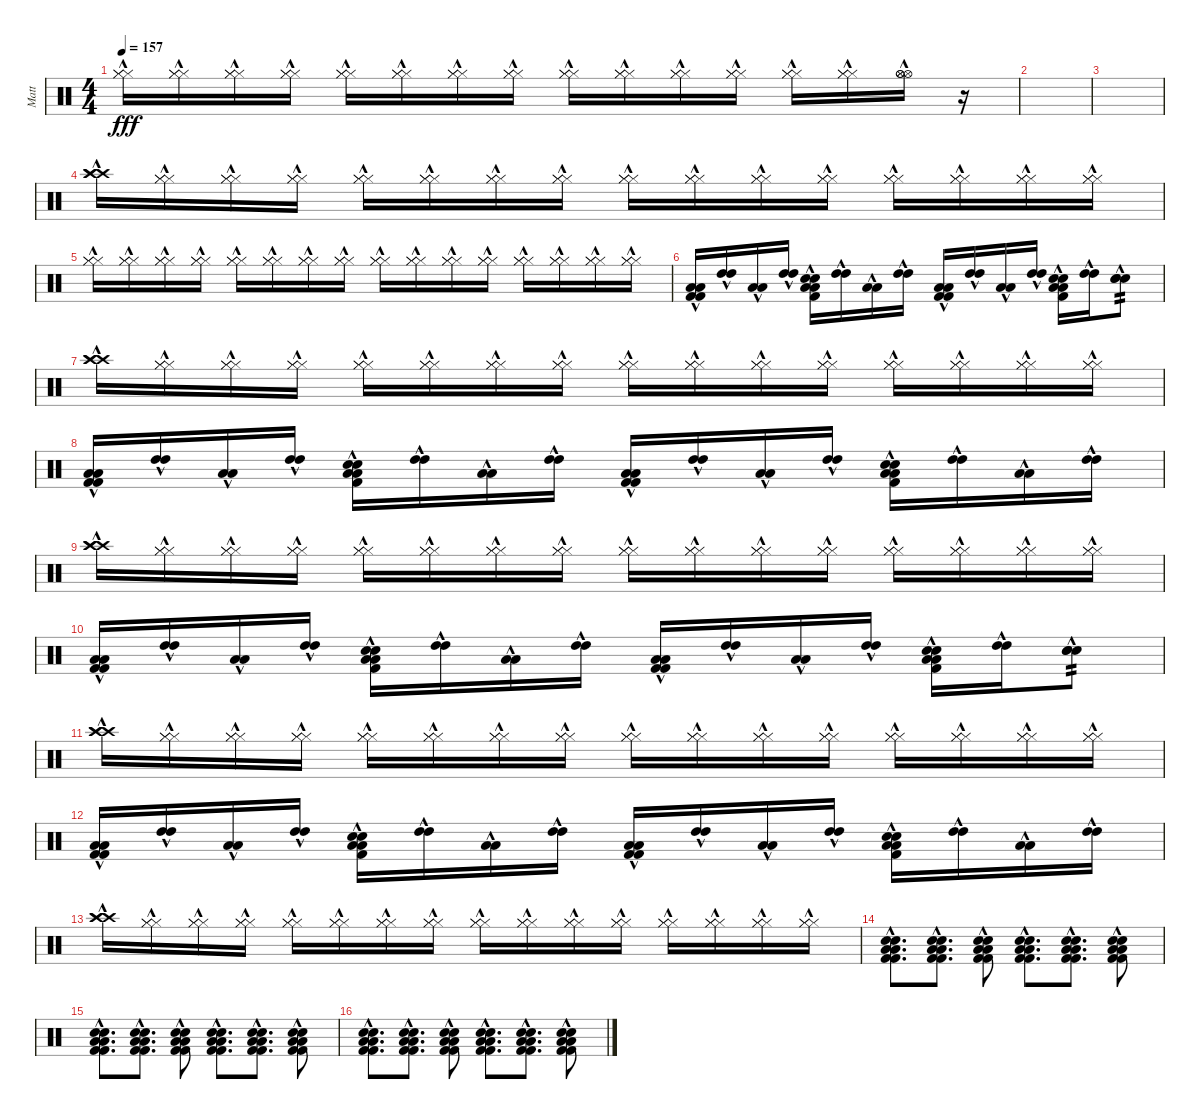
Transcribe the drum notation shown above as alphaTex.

\track ("Matt" "Matt") {instrument percussion}
\staff {score}
\articulation defaults
\ts (4 4)
\tempo 157
\clef neutral
\ks c
("Hi-Hat (closed)"{hac} "Hi-Hat (closed)"{hac} "Hi-Hat (closed)"{hac}).16{dy fff} ("Hi-Hat (closed)"{hac} "Hi-Hat (closed)"{hac} "Hi-Hat (closed)"{hac}).16 ("Hi-Hat (closed)"{hac} "Hi-Hat (closed)"{hac} "Hi-Hat (closed)"{hac}).16 ("Hi-Hat (closed)"{hac} "Hi-Hat (closed)"{hac} "Hi-Hat (closed)"{hac}).16 ("Hi-Hat (closed)"{hac} "Hi-Hat (closed)"{hac} "Hi-Hat (closed)"{hac}).16 ("Hi-Hat (closed)"{hac} "Hi-Hat (closed)"{hac} "Hi-Hat (closed)"{hac}).16 ("Hi-Hat (closed)"{hac} "Hi-Hat (closed)"{hac} "Hi-Hat (closed)"{hac}).16 ("Hi-Hat (closed)"{hac} "Hi-Hat (closed)"{hac} "Hi-Hat (closed)"{hac}).16 ("Hi-Hat (closed)"{hac} "Hi-Hat (closed)"{hac} "Hi-Hat (closed)"{hac}).16 ("Hi-Hat (closed)"{hac} "Hi-Hat (closed)"{hac} "Hi-Hat (closed)"{hac}).16 ("Hi-Hat (closed)"{hac} "Hi-Hat (closed)"{hac} "Hi-Hat (closed)"{hac}).16 ("Hi-Hat (closed)"{hac} "Hi-Hat (closed)"{hac} "Hi-Hat (closed)"{hac}).16 ("Hi-Hat (closed)"{hac} "Hi-Hat (closed)"{hac} "Hi-Hat (closed)"{hac}).16 ("Hi-Hat (closed)"{hac} "Hi-Hat (closed)"{hac} "Hi-Hat (closed)"{hac}).16 ("Hi-Hat (open)"{hac} "Hi-Hat (open)"{hac} "Hi-Hat (open)"{hac}).16 r.16 |
|
|
("Crash high (hit)"{hac} "Crash high (hit)"{hac} "Crash high (hit)"{hac}).16 ("Hi-Hat (closed)"{hac} "Hi-Hat (closed)"{hac} "Hi-Hat (closed)"{hac}).16 ("Hi-Hat (closed)"{hac} "Hi-Hat (closed)"{hac} "Hi-Hat (closed)"{hac}).16 ("Hi-Hat (closed)"{hac} "Hi-Hat (closed)"{hac} "Hi-Hat (closed)"{hac}).16 ("Hi-Hat (closed)"{hac} "Hi-Hat (closed)"{hac} "Hi-Hat (closed)"{hac}).16 ("Hi-Hat (closed)"{hac} "Hi-Hat (closed)"{hac} "Hi-Hat (closed)"{hac}).16 ("Hi-Hat (closed)"{hac} "Hi-Hat (closed)"{hac} "Hi-Hat (closed)"{hac}).16 ("Hi-Hat (closed)"{hac} "Hi-Hat (closed)"{hac} "Hi-Hat (closed)"{hac}).16 ("Hi-Hat (closed)"{hac} "Hi-Hat (closed)"{hac} "Hi-Hat (closed)"{hac}).16 ("Hi-Hat (closed)"{hac} "Hi-Hat (closed)"{hac} "Hi-Hat (closed)"{hac}).16 ("Hi-Hat (closed)"{hac} "Hi-Hat (closed)"{hac} "Hi-Hat (closed)"{hac}).16 ("Hi-Hat (closed)"{hac} "Hi-Hat (closed)"{hac} "Hi-Hat (closed)"{hac}).16 ("Hi-Hat (closed)"{hac} "Hi-Hat (closed)"{hac} "Hi-Hat (closed)"{hac}).16 ("Hi-Hat (closed)"{hac} "Hi-Hat (closed)"{hac} "Hi-Hat (closed)"{hac}).16 ("Hi-Hat (closed)"{hac} "Hi-Hat (closed)"{hac} "Hi-Hat (closed)"{hac}).16 ("Hi-Hat (closed)"{hac} "Hi-Hat (closed)"{hac} "Hi-Hat (closed)"{hac}).16 |
("Hi-Hat (closed)"{hac} "Hi-Hat (closed)"{hac} "Hi-Hat (closed)"{hac}).16 ("Hi-Hat (closed)"{hac} "Hi-Hat (closed)"{hac} "Hi-Hat (closed)"{hac}).16 ("Hi-Hat (closed)"{hac} "Hi-Hat (closed)"{hac} "Hi-Hat (closed)"{hac}).16 ("Hi-Hat (closed)"{hac} "Hi-Hat (closed)"{hac} "Hi-Hat (closed)"{hac}).16 ("Hi-Hat (closed)"{hac} "Hi-Hat (closed)"{hac} "Hi-Hat (closed)"{hac}).16 ("Hi-Hat (closed)"{hac} "Hi-Hat (closed)"{hac} "Hi-Hat (closed)"{hac}).16 ("Hi-Hat (closed)"{hac} "Hi-Hat (closed)"{hac} "Hi-Hat (closed)"{hac}).16 ("Hi-Hat (closed)"{hac} "Hi-Hat (closed)"{hac} "Hi-Hat (closed)"{hac}).16 ("Hi-Hat (closed)"{hac} "Hi-Hat (closed)"{hac} "Hi-Hat (closed)"{hac}).16 ("Hi-Hat (closed)"{hac} "Hi-Hat (closed)"{hac} "Hi-Hat (closed)"{hac}).16 ("Hi-Hat (closed)"{hac} "Hi-Hat (closed)"{hac} "Hi-Hat (closed)"{hac}).16 ("Hi-Hat (closed)"{hac} "Hi-Hat (closed)"{hac} "Hi-Hat (closed)"{hac}).16 ("Hi-Hat (closed)"{hac} "Hi-Hat (closed)"{hac} "Hi-Hat (closed)"{hac}).16 ("Hi-Hat (closed)"{hac} "Hi-Hat (closed)"{hac} "Hi-Hat (closed)"{hac}).16 ("Hi-Hat (closed)"{hac} "Hi-Hat (closed)"{hac} "Hi-Hat (closed)"{hac}).16 ("Hi-Hat (closed)"{hac} "Hi-Hat (closed)"{hac} "Hi-Hat (closed)"{hac}).16 |
("Low Tom (hit)"{hac} "Low Tom (hit)"{hac} "Kick (hit) 2"{hac} "Kick (hit) 2"{hac}).16 ("High Tom (hit)"{hac} "High Tom (hit)"{hac}).16 ("Low Tom (hit)"{hac} "Low Tom (hit)"{hac}).16 ("High Tom (hit)"{hac} "High Tom (hit)"{hac}).16 ("Low Tom (hit)"{hac} "Low Tom (hit)"{hac} "Snare (hit) 2"{hac} "Kick (hit) 2"{hac} "Snare (hit) 2"{hac}).16 ("High Tom (hit)"{hac} "High Tom (hit)"{hac}).16 ("Low Tom (hit)"{hac} "Low Tom (hit)"{hac}).16 ("High Tom (hit)"{hac} "High Tom (hit)"{hac}).16 ("Low Tom (hit)"{hac} "Low Tom (hit)"{hac} "Kick (hit) 2"{hac} "Kick (hit) 2"{hac}).16 ("High Tom (hit)"{hac} "High Tom (hit)"{hac}).16 ("Low Tom (hit)"{hac} "Low Tom (hit)"{hac}).16 ("High Tom (hit)"{hac} "High Tom (hit)"{hac}).16 ("Low Tom (hit)"{hac} "Low Tom (hit)"{hac} "Snare (hit) 2"{hac} "Kick (hit) 2"{hac} "Snare (hit) 2"{hac}).16 ("High Tom (hit)"{hac} "High Tom (hit)"{hac}).16 ("Snare (hit) 2"{hac} "Snare (hit) 2"{hac} "Snare (hit) 2"{hac}).8{tp 2} |
("Crash high (hit)"{hac} "Crash high (hit)"{hac} "Crash high (hit)"{hac}).16 ("Hi-Hat (closed)"{hac} "Hi-Hat (closed)"{hac} "Hi-Hat (closed)"{hac}).16 ("Hi-Hat (closed)"{hac} "Hi-Hat (closed)"{hac} "Hi-Hat (closed)"{hac}).16 ("Hi-Hat (closed)"{hac} "Hi-Hat (closed)"{hac} "Hi-Hat (closed)"{hac}).16 ("Hi-Hat (closed)"{hac} "Hi-Hat (closed)"{hac} "Hi-Hat (closed)"{hac}).16 ("Hi-Hat (closed)"{hac} "Hi-Hat (closed)"{hac} "Hi-Hat (closed)"{hac}).16 ("Hi-Hat (closed)"{hac} "Hi-Hat (closed)"{hac} "Hi-Hat (closed)"{hac}).16 ("Hi-Hat (closed)"{hac} "Hi-Hat (closed)"{hac} "Hi-Hat (closed)"{hac}).16 ("Hi-Hat (closed)"{hac} "Hi-Hat (closed)"{hac} "Hi-Hat (closed)"{hac}).16 ("Hi-Hat (closed)"{hac} "Hi-Hat (closed)"{hac} "Hi-Hat (closed)"{hac}).16 ("Hi-Hat (closed)"{hac} "Hi-Hat (closed)"{hac} "Hi-Hat (closed)"{hac}).16 ("Hi-Hat (closed)"{hac} "Hi-Hat (closed)"{hac} "Hi-Hat (closed)"{hac}).16 ("Hi-Hat (closed)"{hac} "Hi-Hat (closed)"{hac} "Hi-Hat (closed)"{hac}).16 ("Hi-Hat (closed)"{hac} "Hi-Hat (closed)"{hac} "Hi-Hat (closed)"{hac}).16 ("Hi-Hat (closed)"{hac} "Hi-Hat (closed)"{hac} "Hi-Hat (closed)"{hac}).16 ("Hi-Hat (closed)"{hac} "Hi-Hat (closed)"{hac} "Hi-Hat (closed)"{hac}).16 |
("Low Tom (hit)"{hac} "Low Tom (hit)"{hac} "Kick (hit) 2"{hac} "Kick (hit) 2"{hac}).16 ("High Tom (hit)"{hac} "High Tom (hit)"{hac}).16 ("Low Tom (hit)"{hac} "Low Tom (hit)"{hac}).16 ("High Tom (hit)"{hac} "High Tom (hit)"{hac}).16 ("Low Tom (hit)"{hac} "Low Tom (hit)"{hac} "Snare (hit) 2"{hac} "Kick (hit) 2"{hac} "Snare (hit) 2"{hac}).16 ("High Tom (hit)"{hac} "High Tom (hit)"{hac}).16 ("Low Tom (hit)"{hac} "Low Tom (hit)"{hac}).16 ("High Tom (hit)"{hac} "High Tom (hit)"{hac}).16 ("Low Tom (hit)"{hac} "Low Tom (hit)"{hac} "Kick (hit) 2"{hac} "Kick (hit) 2"{hac}).16 ("High Tom (hit)"{hac} "High Tom (hit)"{hac}).16 ("Low Tom (hit)"{hac} "Low Tom (hit)"{hac}).16 ("High Tom (hit)"{hac} "High Tom (hit)"{hac}).16 ("Low Tom (hit)"{hac} "Low Tom (hit)"{hac} "Snare (hit) 2"{hac} "Kick (hit) 2"{hac} "Snare (hit) 2"{hac}).16 ("High Tom (hit)"{hac} "High Tom (hit)"{hac}).16 ("Low Tom (hit)"{hac} "Low Tom (hit)"{hac}).16 ("High Tom (hit)"{hac} "High Tom (hit)"{hac}).16 |
("Crash high (hit)"{hac} "Crash high (hit)"{hac} "Crash high (hit)"{hac}).16 ("Hi-Hat (closed)"{hac} "Hi-Hat (closed)"{hac} "Hi-Hat (closed)"{hac}).16 ("Hi-Hat (closed)"{hac} "Hi-Hat (closed)"{hac} "Hi-Hat (closed)"{hac}).16 ("Hi-Hat (closed)"{hac} "Hi-Hat (closed)"{hac} "Hi-Hat (closed)"{hac}).16 ("Hi-Hat (closed)"{hac} "Hi-Hat (closed)"{hac} "Hi-Hat (closed)"{hac}).16 ("Hi-Hat (closed)"{hac} "Hi-Hat (closed)"{hac} "Hi-Hat (closed)"{hac}).16 ("Hi-Hat (closed)"{hac} "Hi-Hat (closed)"{hac} "Hi-Hat (closed)"{hac}).16 ("Hi-Hat (closed)"{hac} "Hi-Hat (closed)"{hac} "Hi-Hat (closed)"{hac}).16 ("Hi-Hat (closed)"{hac} "Hi-Hat (closed)"{hac} "Hi-Hat (closed)"{hac}).16 ("Hi-Hat (closed)"{hac} "Hi-Hat (closed)"{hac} "Hi-Hat (closed)"{hac}).16 ("Hi-Hat (closed)"{hac} "Hi-Hat (closed)"{hac} "Hi-Hat (closed)"{hac}).16 ("Hi-Hat (closed)"{hac} "Hi-Hat (closed)"{hac} "Hi-Hat (closed)"{hac}).16 ("Hi-Hat (closed)"{hac} "Hi-Hat (closed)"{hac} "Hi-Hat (closed)"{hac}).16 ("Hi-Hat (closed)"{hac} "Hi-Hat (closed)"{hac} "Hi-Hat (closed)"{hac}).16 ("Hi-Hat (closed)"{hac} "Hi-Hat (closed)"{hac} "Hi-Hat (closed)"{hac}).16 ("Hi-Hat (closed)"{hac} "Hi-Hat (closed)"{hac} "Hi-Hat (closed)"{hac}).16 |
("Low Tom (hit)"{hac} "Low Tom (hit)"{hac} "Kick (hit) 2"{hac} "Kick (hit) 2"{hac}).16 ("High Tom (hit)"{hac} "High Tom (hit)"{hac}).16 ("Low Tom (hit)"{hac} "Low Tom (hit)"{hac}).16 ("High Tom (hit)"{hac} "High Tom (hit)"{hac}).16 ("Low Tom (hit)"{hac} "Low Tom (hit)"{hac} "Snare (hit) 2"{hac} "Kick (hit) 2"{hac} "Snare (hit) 2"{hac}).16 ("High Tom (hit)"{hac} "High Tom (hit)"{hac}).16 ("Low Tom (hit)"{hac} "Low Tom (hit)"{hac}).16 ("High Tom (hit)"{hac} "High Tom (hit)"{hac}).16 ("Low Tom (hit)"{hac} "Low Tom (hit)"{hac} "Kick (hit) 2"{hac} "Kick (hit) 2"{hac}).16 ("High Tom (hit)"{hac} "High Tom (hit)"{hac}).16 ("Low Tom (hit)"{hac} "Low Tom (hit)"{hac}).16 ("High Tom (hit)"{hac} "High Tom (hit)"{hac}).16 ("Low Tom (hit)"{hac} "Low Tom (hit)"{hac} "Snare (hit) 2"{hac} "Kick (hit) 2"{hac} "Snare (hit) 2"{hac}).16 ("High Tom (hit)"{hac} "High Tom (hit)"{hac}).16 ("Snare (hit) 2"{hac} "Snare (hit) 2"{hac} "Snare (hit) 2"{hac}).8{tp 2} |
("Crash high (hit)"{hac} "Crash high (hit)"{hac} "Crash high (hit)"{hac}).16 ("Hi-Hat (closed)"{hac} "Hi-Hat (closed)"{hac} "Hi-Hat (closed)"{hac}).16 ("Hi-Hat (closed)"{hac} "Hi-Hat (closed)"{hac} "Hi-Hat (closed)"{hac}).16 ("Hi-Hat (closed)"{hac} "Hi-Hat (closed)"{hac} "Hi-Hat (closed)"{hac}).16 ("Hi-Hat (closed)"{hac} "Hi-Hat (closed)"{hac} "Hi-Hat (closed)"{hac}).16 ("Hi-Hat (closed)"{hac} "Hi-Hat (closed)"{hac} "Hi-Hat (closed)"{hac}).16 ("Hi-Hat (closed)"{hac} "Hi-Hat (closed)"{hac} "Hi-Hat (closed)"{hac}).16 ("Hi-Hat (closed)"{hac} "Hi-Hat (closed)"{hac} "Hi-Hat (closed)"{hac}).16 ("Hi-Hat (closed)"{hac} "Hi-Hat (closed)"{hac} "Hi-Hat (closed)"{hac}).16 ("Hi-Hat (closed)"{hac} "Hi-Hat (closed)"{hac} "Hi-Hat (closed)"{hac}).16 ("Hi-Hat (closed)"{hac} "Hi-Hat (closed)"{hac} "Hi-Hat (closed)"{hac}).16 ("Hi-Hat (closed)"{hac} "Hi-Hat (closed)"{hac} "Hi-Hat (closed)"{hac}).16 ("Hi-Hat (closed)"{hac} "Hi-Hat (closed)"{hac} "Hi-Hat (closed)"{hac}).16 ("Hi-Hat (closed)"{hac} "Hi-Hat (closed)"{hac} "Hi-Hat (closed)"{hac}).16 ("Hi-Hat (closed)"{hac} "Hi-Hat (closed)"{hac} "Hi-Hat (closed)"{hac}).16 ("Hi-Hat (closed)"{hac} "Hi-Hat (closed)"{hac} "Hi-Hat (closed)"{hac}).16 |
("Low Tom (hit)"{hac} "Low Tom (hit)"{hac} "Kick (hit) 2"{hac} "Kick (hit) 2"{hac}).16 ("High Tom (hit)"{hac} "High Tom (hit)"{hac}).16 ("Low Tom (hit)"{hac} "Low Tom (hit)"{hac}).16 ("High Tom (hit)"{hac} "High Tom (hit)"{hac}).16 ("Low Tom (hit)"{hac} "Low Tom (hit)"{hac} "Snare (hit) 2"{hac} "Kick (hit) 2"{hac} "Snare (hit) 2"{hac}).16 ("High Tom (hit)"{hac} "High Tom (hit)"{hac}).16 ("Low Tom (hit)"{hac} "Low Tom (hit)"{hac}).16 ("High Tom (hit)"{hac} "High Tom (hit)"{hac}).16 ("Low Tom (hit)"{hac} "Low Tom (hit)"{hac} "Kick (hit) 2"{hac} "Kick (hit) 2"{hac}).16 ("High Tom (hit)"{hac} "High Tom (hit)"{hac}).16 ("Low Tom (hit)"{hac} "Low Tom (hit)"{hac}).16 ("High Tom (hit)"{hac} "High Tom (hit)"{hac}).16 ("Low Tom (hit)"{hac} "Low Tom (hit)"{hac} "Snare (hit) 2"{hac} "Kick (hit) 2"{hac} "Snare (hit) 2"{hac}).16 ("High Tom (hit)"{hac} "High Tom (hit)"{hac}).16 ("Low Tom (hit)"{hac} "Low Tom (hit)"{hac}).16 ("High Tom (hit)"{hac} "High Tom (hit)"{hac}).16 |
("Crash high (hit)"{hac} "Crash high (hit)"{hac} "Crash high (hit)"{hac}).16 ("Hi-Hat (closed)"{hac} "Hi-Hat (closed)"{hac} "Hi-Hat (closed)"{hac}).16 ("Hi-Hat (closed)"{hac} "Hi-Hat (closed)"{hac} "Hi-Hat (closed)"{hac}).16 ("Hi-Hat (closed)"{hac} "Hi-Hat (closed)"{hac} "Hi-Hat (closed)"{hac}).16 ("Hi-Hat (closed)"{hac} "Hi-Hat (closed)"{hac} "Hi-Hat (closed)"{hac}).16 ("Hi-Hat (closed)"{hac} "Hi-Hat (closed)"{hac} "Hi-Hat (closed)"{hac}).16 ("Hi-Hat (closed)"{hac} "Hi-Hat (closed)"{hac} "Hi-Hat (closed)"{hac}).16 ("Hi-Hat (closed)"{hac} "Hi-Hat (closed)"{hac} "Hi-Hat (closed)"{hac}).16 ("Hi-Hat (closed)"{hac} "Hi-Hat (closed)"{hac} "Hi-Hat (closed)"{hac}).16 ("Hi-Hat (closed)"{hac} "Hi-Hat (closed)"{hac} "Hi-Hat (closed)"{hac}).16 ("Hi-Hat (closed)"{hac} "Hi-Hat (closed)"{hac} "Hi-Hat (closed)"{hac}).16 ("Hi-Hat (closed)"{hac} "Hi-Hat (closed)"{hac} "Hi-Hat (closed)"{hac}).16 ("Hi-Hat (closed)"{hac} "Hi-Hat (closed)"{hac} "Hi-Hat (closed)"{hac}).16 ("Hi-Hat (closed)"{hac} "Hi-Hat (closed)"{hac} "Hi-Hat (closed)"{hac}).16 ("Hi-Hat (closed)"{hac} "Hi-Hat (closed)"{hac} "Hi-Hat (closed)"{hac}).16 ("Hi-Hat (closed)"{hac} "Hi-Hat (closed)"{hac} "Hi-Hat (closed)"{hac}).16 |
("Low Tom (hit)"{hac} "Low Tom (hit)"{hac} "Kick (hit) 2"{hac} "Kick (hit) 2"{hac} "Snare (hit) 2"{hac} "Snare (hit) 2"{hac}).8{d} ("Low Tom (hit)"{hac} "Low Tom (hit)"{hac} "Kick (hit) 2"{hac} "Kick (hit) 2"{hac} "Snare (hit) 2"{hac} "Snare (hit) 2"{hac}).8{d} ("Low Tom (hit)"{hac} "Low Tom (hit)"{hac} "Kick (hit) 2"{hac} "Kick (hit) 2"{hac} "Snare (hit) 2"{hac} "Snare (hit) 2"{hac}).8 ("Low Tom (hit)"{hac} "Low Tom (hit)"{hac} "Kick (hit) 2"{hac} "Kick (hit) 2"{hac} "Snare (hit) 2"{hac} "Snare (hit) 2"{hac}).8{d} ("Low Tom (hit)"{hac} "Low Tom (hit)"{hac} "Kick (hit) 2"{hac} "Kick (hit) 2"{hac} "Snare (hit) 2"{hac} "Snare (hit) 2"{hac}).8{d} ("Low Tom (hit)"{hac} "Low Tom (hit)"{hac} "Kick (hit) 2"{hac} "Kick (hit) 2"{hac} "Snare (hit) 2"{hac} "Snare (hit) 2"{hac}).8 |
("Low Tom (hit)"{hac} "Low Tom (hit)"{hac} "Kick (hit) 2"{hac} "Kick (hit) 2"{hac} "Snare (hit) 2"{hac} "Snare (hit) 2"{hac}).8{d} ("Low Tom (hit)"{hac} "Low Tom (hit)"{hac} "Kick (hit) 2"{hac} "Kick (hit) 2"{hac} "Snare (hit) 2"{hac} "Snare (hit) 2"{hac}).8{d} ("Low Tom (hit)"{hac} "Low Tom (hit)"{hac} "Kick (hit) 2"{hac} "Kick (hit) 2"{hac} "Snare (hit) 2"{hac} "Snare (hit) 2"{hac}).8 ("Low Tom (hit)"{hac} "Low Tom (hit)"{hac} "Kick (hit) 2"{hac} "Kick (hit) 2"{hac} "Snare (hit) 2"{hac} "Snare (hit) 2"{hac}).8{d} ("Low Tom (hit)"{hac} "Low Tom (hit)"{hac} "Kick (hit) 2"{hac} "Kick (hit) 2"{hac} "Snare (hit) 2"{hac} "Snare (hit) 2"{hac}).8{d} ("Low Tom (hit)"{hac} "Low Tom (hit)"{hac} "Kick (hit) 2"{hac} "Kick (hit) 2"{hac} "Snare (hit) 2"{hac} "Snare (hit) 2"{hac}).8 |
("Low Tom (hit)"{hac} "Low Tom (hit)"{hac} "Kick (hit) 2"{hac} "Kick (hit) 2"{hac} "Snare (hit) 2"{hac} "Snare (hit) 2"{hac}).8{d} ("Low Tom (hit)"{hac} "Low Tom (hit)"{hac} "Kick (hit) 2"{hac} "Kick (hit) 2"{hac} "Snare (hit) 2"{hac} "Snare (hit) 2"{hac}).8{d} ("Low Tom (hit)"{hac} "Low Tom (hit)"{hac} "Kick (hit) 2"{hac} "Kick (hit) 2"{hac} "Snare (hit) 2"{hac} "Snare (hit) 2"{hac}).8 ("Low Tom (hit)"{hac} "Low Tom (hit)"{hac} "Kick (hit) 2"{hac} "Kick (hit) 2"{hac} "Snare (hit) 2"{hac} "Snare (hit) 2"{hac}).8{d} ("Low Tom (hit)"{hac} "Low Tom (hit)"{hac} "Kick (hit) 2"{hac} "Kick (hit) 2"{hac} "Snare (hit) 2"{hac} "Snare (hit) 2"{hac}).8{d} ("Low Tom (hit)"{hac} "Low Tom (hit)"{hac} "Kick (hit) 2"{hac} "Kick (hit) 2"{hac} "Snare (hit) 2"{hac} "Snare (hit) 2"{hac}).8
